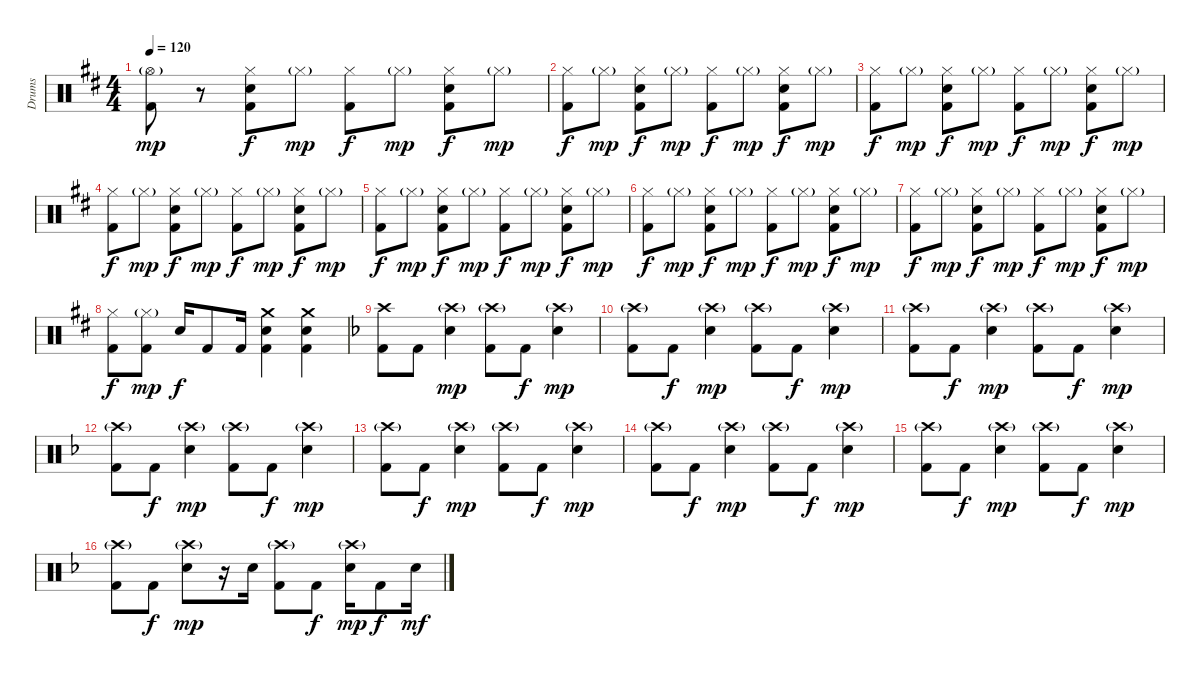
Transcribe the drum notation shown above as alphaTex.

\track ("Drums" "Drums") {instrument percussion}
\staff {score}
\articulation defaults
\ts (4 4)
\tempo 120
\clef neutral
\ks bminor
("Hi-Hat (open)"{g} "Kick (hit) 2").8{dy mp} r.8 ("Hi-Hat (closed)" "Snare (hit) 2" "Kick (hit) 2").8{dy f} "Hi-Hat (closed)"{g}.8{dy mp} ("Hi-Hat (closed)" "Kick (hit) 2").8{dy f} "Hi-Hat (closed)"{g}.8{dy mp} ("Hi-Hat (closed)" "Snare (hit) 2" "Kick (hit) 2").8{dy f} "Hi-Hat (closed)"{g}.8{dy mp} |
("Hi-Hat (closed)" "Kick (hit) 2").8{dy f} "Hi-Hat (closed)"{g}.8{dy mp} ("Hi-Hat (closed)" "Snare (hit) 2" "Kick (hit) 2").8{dy f} "Hi-Hat (closed)"{g}.8{dy mp} ("Hi-Hat (closed)" "Kick (hit) 2").8{dy f} "Hi-Hat (closed)"{g}.8{dy mp} ("Hi-Hat (closed)" "Snare (hit) 2" "Kick (hit) 2").8{dy f} "Hi-Hat (closed)"{g}.8{dy mp} |
("Hi-Hat (closed)" "Kick (hit) 2").8{dy f} "Hi-Hat (closed)"{g}.8{dy mp} ("Hi-Hat (closed)" "Snare (hit) 2" "Kick (hit) 2").8{dy f} "Hi-Hat (closed)"{g}.8{dy mp} ("Hi-Hat (closed)" "Kick (hit) 2").8{dy f} "Hi-Hat (closed)"{g}.8{dy mp} ("Hi-Hat (closed)" "Snare (hit) 2" "Kick (hit) 2").8{dy f} "Hi-Hat (closed)"{g}.8{dy mp} |
("Hi-Hat (closed)" "Kick (hit) 2").8{dy f} "Hi-Hat (closed)"{g}.8{dy mp} ("Hi-Hat (closed)" "Snare (hit) 2" "Kick (hit) 2").8{dy f} "Hi-Hat (closed)"{g}.8{dy mp} ("Hi-Hat (closed)" "Kick (hit) 2").8{dy f} "Hi-Hat (closed)"{g}.8{dy mp} ("Hi-Hat (closed)" "Snare (hit) 2" "Kick (hit) 2").8{dy f} "Hi-Hat (closed)"{g}.8{dy mp} |
("Hi-Hat (closed)" "Kick (hit) 2").8{dy f} "Hi-Hat (closed)"{g}.8{dy mp} ("Hi-Hat (closed)" "Snare (hit) 2" "Kick (hit) 2").8{dy f} "Hi-Hat (closed)"{g}.8{dy mp} ("Hi-Hat (closed)" "Kick (hit) 2").8{dy f} "Hi-Hat (closed)"{g}.8{dy mp} ("Hi-Hat (closed)" "Snare (hit) 2" "Kick (hit) 2").8{dy f} "Hi-Hat (closed)"{g}.8{dy mp} |
("Hi-Hat (closed)" "Kick (hit) 2").8{dy f} "Hi-Hat (closed)"{g}.8{dy mp} ("Hi-Hat (closed)" "Snare (hit) 2" "Kick (hit) 2").8{dy f} "Hi-Hat (closed)"{g}.8{dy mp} ("Hi-Hat (closed)" "Kick (hit) 2").8{dy f} "Hi-Hat (closed)"{g}.8{dy mp} ("Hi-Hat (closed)" "Snare (hit) 2" "Kick (hit) 2").8{dy f} "Hi-Hat (closed)"{g}.8{dy mp} |
("Hi-Hat (closed)" "Kick (hit) 2").8{dy f} "Hi-Hat (closed)"{g}.8{dy mp} ("Hi-Hat (closed)" "Snare (hit) 2" "Kick (hit) 2").8{dy f} "Hi-Hat (closed)"{g}.8{dy mp} ("Hi-Hat (closed)" "Kick (hit) 2").8{dy f} "Hi-Hat (closed)"{g}.8{dy mp} ("Hi-Hat (closed)" "Snare (hit) 2" "Kick (hit) 2").8{dy f} "Hi-Hat (closed)"{g}.8{dy mp} |
("Hi-Hat (closed)" "Kick (hit) 2").8{dy f} ("Hi-Hat (closed)"{g} "Kick (hit) 2").8{dy mp} "Snare (hit) 2".16{dy f} "Kick (hit) 2".8 "Kick (hit) 2".16 ("Crash medium (hit)" "Snare (hit) 2" "Kick (hit) 2").4 ("Crash medium (hit)" "Snare (hit) 2" "Kick (hit) 2").4 |
\ks dminor
("Crash high (hit)" "Kick (hit) 2").8 "Kick (hit) 2".8 ("Crash high (hit)"{g} "Snare (hit) 2").4{dy mp} ("Crash high (hit)"{g} "Kick (hit) 2").8 "Kick (hit) 2".8{dy f} ("Crash high (hit)"{g} "Snare (hit) 2").4{dy mp} |
("Crash high (hit)"{g} "Kick (hit) 2").8 "Kick (hit) 2".8{dy f} ("Crash high (hit)"{g} "Snare (hit) 2").4{dy mp} ("Crash high (hit)"{g} "Kick (hit) 2").8 "Kick (hit) 2".8{dy f} ("Crash high (hit)"{g} "Snare (hit) 2").4{dy mp} |
("Crash high (hit)"{g} "Kick (hit) 2").8 "Kick (hit) 2".8{dy f} ("Crash high (hit)"{g} "Snare (hit) 2").4{dy mp} ("Crash high (hit)"{g} "Kick (hit) 2").8 "Kick (hit) 2".8{dy f} ("Crash high (hit)"{g} "Snare (hit) 2").4{dy mp} |
("Crash high (hit)"{g} "Kick (hit) 2").8 "Kick (hit) 2".8{dy f} ("Crash high (hit)"{g} "Snare (hit) 2").4{dy mp} ("Crash high (hit)"{g} "Kick (hit) 2").8 "Kick (hit) 2".8{dy f} ("Crash high (hit)"{g} "Snare (hit) 2").4{dy mp} |
("Crash high (hit)"{g} "Kick (hit) 2").8 "Kick (hit) 2".8{dy f} ("Crash high (hit)"{g} "Snare (hit) 2").4{dy mp} ("Crash high (hit)"{g} "Kick (hit) 2").8 "Kick (hit) 2".8{dy f} ("Crash high (hit)"{g} "Snare (hit) 2").4{dy mp} |
("Crash high (hit)"{g} "Kick (hit) 2").8 "Kick (hit) 2".8{dy f} ("Crash high (hit)"{g} "Snare (hit) 2").4{dy mp} ("Crash high (hit)"{g} "Kick (hit) 2").8 "Kick (hit) 2".8{dy f} ("Crash high (hit)"{g} "Snare (hit) 2").4{dy mp} |
("Crash high (hit)"{g} "Kick (hit) 2").8 "Kick (hit) 2".8{dy f} ("Crash high (hit)"{g} "Snare (hit) 2").4{dy mp} ("Crash high (hit)"{g} "Kick (hit) 2").8 "Kick (hit) 2".8{dy f} ("Crash high (hit)"{g} "Snare (hit) 2").4{dy mp} |
("Crash high (hit)"{g} "Kick (hit) 2").8 "Kick (hit) 2".8{dy f} ("Crash high (hit)"{g} "Snare (hit) 2").8{dy mp} r.16 "Snare (hit) 2".16 ("Crash high (hit)"{g} "Kick (hit) 2").8 "Kick (hit) 2".8{dy f} ("Crash high (hit)"{g} "Snare (hit) 2").16{dy mp} "Kick (hit) 2".8{dy f} "Snare (hit) 2".16{dy mf}
